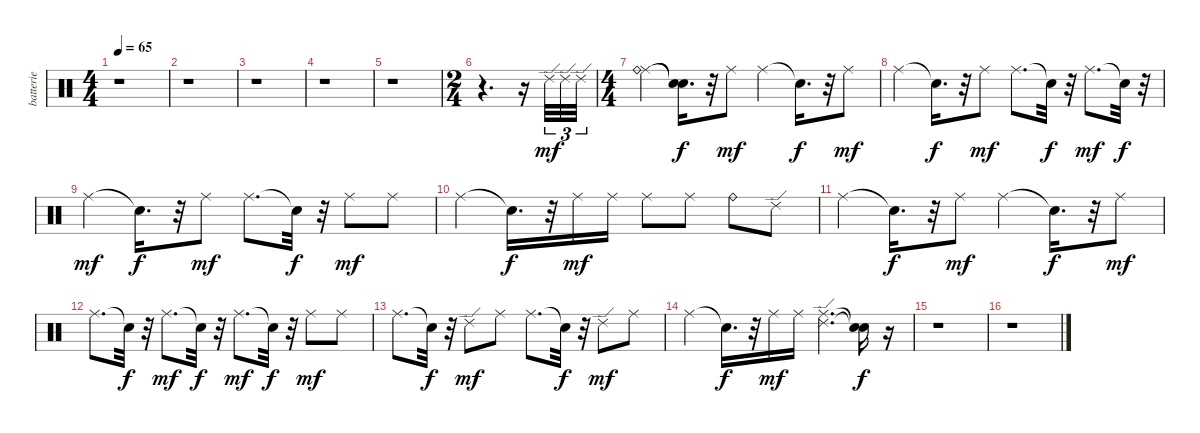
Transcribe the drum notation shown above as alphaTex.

\track ("batterie" "batterie") {instrument percussion}
\staff {score}
\articulation defaults
\ts (4 4)
\tempo 65
\clef neutral
\ks c
r.1{dy mf} |
r.1 |
r.1 |
r.1 |
r.1 |
\ts (2 4)
r.4{d} r.16 "Ride (edge) 2".32{tu (3 2)} "Ride (edge) 2".32{tu (3 2)} "Ride (edge) 2".32{tu (3 2)} |
\ts (4 4)
("Ride (middle)" "Ride (bell)").4 ("Snare (hit)"{t} "Snare (hit)"{t}).16{d dy f} r.32 "Ride (middle)".8{dy mf} "Ride (middle)".4 "Snare (hit)"{t}.16{d dy f} r.32 "Ride (middle)".8{dy mf} |
"Ride (middle)".4 "Snare (hit)"{t}.16{d dy f} r.32 "Ride (middle)".8{dy mf} "Ride (middle)".8{d} "Snare (hit)"{t}.32{dy f} r.32 "Ride (middle)".8{d dy mf} "Snare (hit)"{t}.32{dy f} r.32 |
"Ride (middle)".4{dy mf} "Snare (hit)"{t}.16{d dy f} r.32 "Ride (middle)".8{dy mf} "Ride (middle)".8{d} "Snare (hit)"{t}.32{dy f} r.32 "Ride (middle)".8{dy mf} "Ride (middle)".8 |
"Ride (middle)".4 "Snare (hit)"{t}.16{d dy f} r.32 "Ride (middle)".16{dy mf} "Ride (middle)".16 "Ride (middle)".8 "Ride (middle)".8 "Ride (bell)".8 "Ride (edge) 2".8 |
"Ride (middle)".4 "Snare (hit)"{t}.16{d dy f} r.32 "Ride (middle)".8{dy mf} "Ride (middle)".4 "Snare (hit)"{t}.16{d dy f} r.32 "Ride (middle)".8{dy mf} |
"Ride (middle)".8{d} "Snare (hit)"{t}.32{dy f} r.32 "Ride (middle)".8{d dy mf} "Snare (hit)"{t}.32{dy f} r.32 "Ride (middle)".8{d dy mf} "Snare (hit)"{t}.32{dy f} r.32 "Ride (middle)".8{dy mf} "Ride (middle)".8 |
"Ride (middle)".8{d} "Snare (hit)"{t}.32{dy f} r.32 "Ride (edge) 2".8{dy mf} "Ride (middle)".8 "Ride (middle)".8{d} "Snare (hit)"{t}.32{dy f} r.32 "Ride (edge) 2".8{dy mf} "Ride (middle)".8 |
"Ride (middle)".4 "Snare (hit)"{t}.16{d dy f} r.32 "Ride (middle)".16{dy mf} "Ride (middle)".16 ("Ride (middle)" "Ride (edge) 2").4{d} ("Snare (hit)"{t} "Snare (hit)"{t}).16{dy f} r.16 |
r.1 |
r.1
